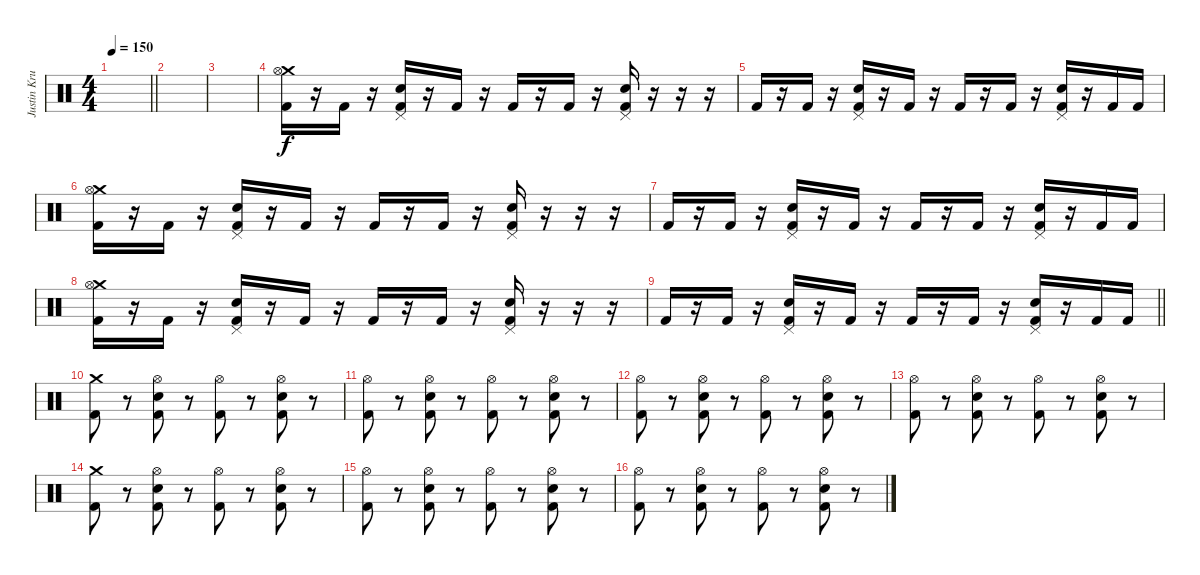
\track ("Justin Kruger" "Justin Kru") {instrument percussion}
\staff {score}
\articulation defaults
\ts (4 4)
\tempo 150
\clef neutral
\barLineRight lightlight
\ks c
|
\section ("" "")
|
|
("Crash medium (hit)" "Hi-Hat (open)" "Kick (hit) 2").16 r.16 "Kick (hit) 2".16 r.16 ("Pedal Hi-Hat (hit)" "Snare (hit) 2" "Kick (hit) 2").16 r.16 "Kick (hit) 2".16 r.16 "Kick (hit) 2".16 r.16 "Kick (hit) 2".16 r.16 ("Pedal Hi-Hat (hit)" "Snare (hit) 2" "Kick (hit) 2").16 r.16 r.16 r.16 |
"Kick (hit) 2".16 r.16 "Kick (hit) 2".16 r.16 ("Pedal Hi-Hat (hit)" "Snare (hit) 2" "Kick (hit) 2").16 r.16 "Kick (hit) 2".16 r.16 "Kick (hit) 2".16 r.16 "Kick (hit) 2".16 r.16 ("Pedal Hi-Hat (hit)" "Snare (hit) 2" "Kick (hit) 2").16 r.16 "Kick (hit) 2".16 "Kick (hit) 2".16 |
("Crash medium (hit)" "Hi-Hat (open)" "Kick (hit) 2").16 r.16 "Kick (hit) 2".16 r.16 ("Pedal Hi-Hat (hit)" "Snare (hit) 2" "Kick (hit) 2").16 r.16 "Kick (hit) 2".16 r.16 "Kick (hit) 2".16 r.16 "Kick (hit) 2".16 r.16 ("Pedal Hi-Hat (hit)" "Snare (hit) 2" "Kick (hit) 2").16 r.16 r.16 r.16 |
"Kick (hit) 2".16 r.16 "Kick (hit) 2".16 r.16 ("Pedal Hi-Hat (hit)" "Snare (hit) 2" "Kick (hit) 2").16 r.16 "Kick (hit) 2".16 r.16 "Kick (hit) 2".16 r.16 "Kick (hit) 2".16 r.16 ("Pedal Hi-Hat (hit)" "Snare (hit) 2" "Kick (hit) 2").16 r.16 "Kick (hit) 2".16 "Kick (hit) 2".16 |
("Crash medium (hit)" "Hi-Hat (open)" "Kick (hit) 2").16 r.16 "Kick (hit) 2".16 r.16 ("Pedal Hi-Hat (hit)" "Snare (hit) 2" "Kick (hit) 2").16 r.16 "Kick (hit) 2".16 r.16 "Kick (hit) 2".16 r.16 "Kick (hit) 2".16 r.16 ("Pedal Hi-Hat (hit)" "Snare (hit) 2" "Kick (hit) 2").16 r.16 r.16 r.16 |
\barLineRight lightlight "Kick (hit) 2".16
r.16 "Kick (hit) 2".16 r.16 ("Pedal Hi-Hat (hit)" "Snare (hit) 2" "Kick (hit) 2").16 r.16 "Kick (hit) 2".16 r.16 "Kick (hit) 2".16 r.16 "Kick (hit) 2".16 r.16 ("Pedal Hi-Hat (hit)" "Snare (hit) 2" "Kick (hit) 2").16 r.16 "Kick (hit) 2".16 "Kick (hit) 2".16 |
\section ("" "")
("Crash medium (hit)" "Kick (hit) 2").8 r.8 ("Hi-Hat (open)" "Snare (hit) 2" "Kick (hit) 2").8 r.8 ("Hi-Hat (open)" "Kick (hit) 2").8 r.8 ("Hi-Hat (open)" "Snare (hit) 2" "Kick (hit) 2").8 r.8 |
("Hi-Hat (open)" "Kick (hit) 2").8 r.8 ("Hi-Hat (open)" "Snare (hit) 2" "Kick (hit) 2").8 r.8 ("Hi-Hat (open)" "Kick (hit) 2").8 r.8 ("Hi-Hat (open)" "Snare (hit) 2" "Kick (hit) 2").8 r.8 |
("Hi-Hat (open)" "Kick (hit) 2").8 r.8 ("Hi-Hat (open)" "Snare (hit) 2" "Kick (hit) 2").8 r.8 ("Hi-Hat (open)" "Kick (hit) 2").8 r.8 ("Hi-Hat (open)" "Snare (hit) 2" "Kick (hit) 2").8 r.8 |
("Hi-Hat (open)" "Kick (hit) 2").8 r.8 ("Hi-Hat (open)" "Snare (hit) 2" "Kick (hit) 2").8 r.8 ("Hi-Hat (open)" "Kick (hit) 2").8 r.8 ("Hi-Hat (open)" "Snare (hit) 2" "Kick (hit) 2").8 r.8 |
("Crash medium (hit)" "Kick (hit) 2").8 r.8 ("Hi-Hat (open)" "Snare (hit) 2" "Kick (hit) 2").8 r.8 ("Hi-Hat (open)" "Kick (hit) 2").8 r.8 ("Hi-Hat (open)" "Snare (hit) 2" "Kick (hit) 2").8 r.8 |
("Hi-Hat (open)" "Kick (hit) 2").8 r.8 ("Hi-Hat (open)" "Snare (hit) 2" "Kick (hit) 2").8 r.8 ("Hi-Hat (open)" "Kick (hit) 2").8 r.8 ("Hi-Hat (open)" "Snare (hit) 2" "Kick (hit) 2").8 r.8 |
("Hi-Hat (open)" "Kick (hit) 2").8 r.8 ("Hi-Hat (open)" "Snare (hit) 2" "Kick (hit) 2").8 r.8 ("Hi-Hat (open)" "Kick (hit) 2").8 r.8 ("Hi-Hat (open)" "Snare (hit) 2" "Kick (hit) 2").8 r.8
